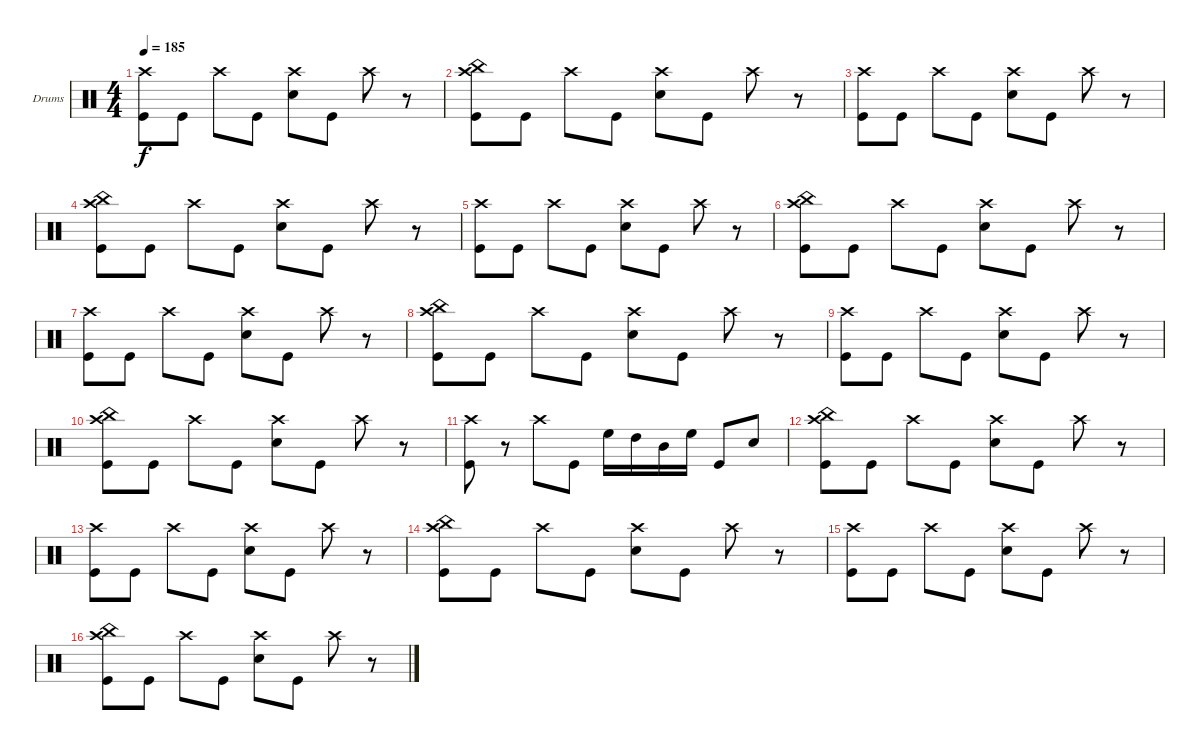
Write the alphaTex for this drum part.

\defaultSystemsLayout 4
\bracketExtendMode nobrackets
\firstSystemTrackNameOrientation horizontal
\otherSystemsTrackNameOrientation horizontal
\track ("Drumkit" "Drums") {instrument percussion}
\staff {score}
\articulation defaults
\ts (4 4)
\tempo 185
\clef neutral
\ks c
("Crash high (hit)" "Kick (hit)").8{dy f} "Kick (hit)".8 "Crash high (hit)".8 "Kick (hit)".8 ("Crash high (hit)" "Snare (hit) 2").8 "Kick (hit)".8 "Crash high (hit)".8 r.8 |
("Crash high (hit)" "China (hit)" "Kick (hit)").8 "Kick (hit)".8 "Crash high (hit)".8 "Kick (hit)".8 ("Crash high (hit)" "Snare (hit) 2").8 "Kick (hit)".8 "Crash high (hit)".8 r.8 |
("Crash high (hit)" "Kick (hit)").8 "Kick (hit)".8 "Crash high (hit)".8 "Kick (hit)".8 ("Crash high (hit)" "Snare (hit) 2").8 "Kick (hit)".8 "Crash high (hit)".8 r.8 |
("Crash high (hit)" "China (hit)" "Kick (hit)").8 "Kick (hit)".8 "Crash high (hit)".8 "Kick (hit)".8 ("Crash high (hit)" "Snare (hit) 2").8 "Kick (hit)".8 "Crash high (hit)".8 r.8 |
("Crash high (hit)" "Kick (hit)").8 "Kick (hit)".8 "Crash high (hit)".8 "Kick (hit)".8 ("Crash high (hit)" "Snare (hit) 2").8 "Kick (hit)".8 "Crash high (hit)".8 r.8 |
("Crash high (hit)" "China (hit)" "Kick (hit)").8 "Kick (hit)".8 "Crash high (hit)".8 "Kick (hit)".8 ("Crash high (hit)" "Snare (hit) 2").8 "Kick (hit)".8 "Crash high (hit)".8 r.8 |
("Crash high (hit)" "Kick (hit)").8 "Kick (hit)".8 "Crash high (hit)".8 "Kick (hit)".8 ("Crash high (hit)" "Snare (hit) 2").8 "Kick (hit)".8 "Crash high (hit)".8 r.8 |
("Crash high (hit)" "China (hit)" "Kick (hit)").8 "Kick (hit)".8 "Crash high (hit)".8 "Kick (hit)".8 ("Crash high (hit)" "Snare (hit) 2").8 "Kick (hit)".8 "Crash high (hit)".8 r.8 |
("Crash high (hit)" "Kick (hit)").8 "Kick (hit)".8 "Crash high (hit)".8 "Kick (hit)".8 ("Crash high (hit)" "Snare (hit) 2").8 "Kick (hit)".8 "Crash high (hit)".8 r.8 |
("Crash high (hit)" "China (hit)" "Kick (hit)").8 "Kick (hit)".8 "Crash high (hit)".8 "Kick (hit)".8 ("Crash high (hit)" "Snare (hit) 2").8 "Kick (hit)".8 "Crash high (hit)".8 r.8 |
("Crash high (hit)" "Kick (hit)").8 r.8 "Crash high (hit)".8 "Kick (hit)".8 "High Floor Tom (hit)".16 "High Tom (hit)".16 "Mid Tom (hit)".16 "High Floor Tom (hit)".16 "Kick (hit)".8 "Snare (hit) 2".8 |
("Crash high (hit)" "China (hit)" "Kick (hit)").8 "Kick (hit)".8 "Crash high (hit)".8 "Kick (hit)".8 ("Crash high (hit)" "Snare (hit) 2").8 "Kick (hit)".8 "Crash high (hit)".8 r.8 |
("Crash high (hit)" "Kick (hit)").8 "Kick (hit)".8 "Crash high (hit)".8 "Kick (hit)".8 ("Crash high (hit)" "Snare (hit) 2").8 "Kick (hit)".8 "Crash high (hit)".8 r.8 |
("Crash high (hit)" "China (hit)" "Kick (hit)").8 "Kick (hit)".8 "Crash high (hit)".8 "Kick (hit)".8 ("Crash high (hit)" "Snare (hit) 2").8 "Kick (hit)".8 "Crash high (hit)".8 r.8 |
("Crash high (hit)" "Kick (hit)").8 "Kick (hit)".8 "Crash high (hit)".8 "Kick (hit)".8 ("Crash high (hit)" "Snare (hit) 2").8 "Kick (hit)".8 "Crash high (hit)".8 r.8 |
("Crash high (hit)" "China (hit)" "Kick (hit)").8 "Kick (hit)".8 "Crash high (hit)".8 "Kick (hit)".8 ("Crash high (hit)" "Snare (hit) 2").8 "Kick (hit)".8 "Crash high (hit)".8 r.8
